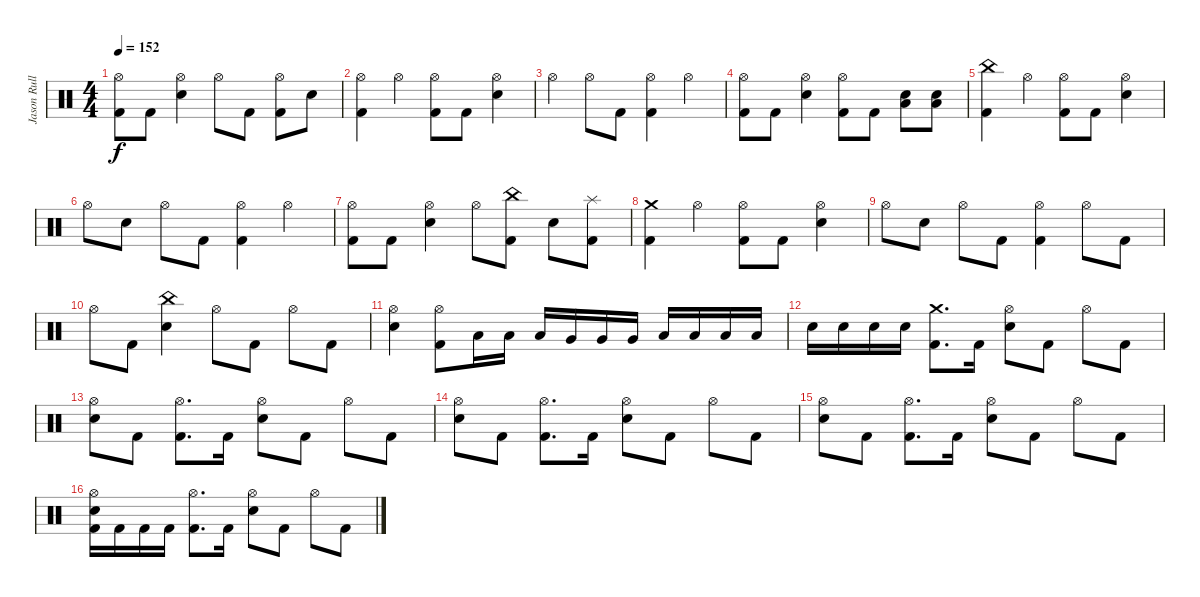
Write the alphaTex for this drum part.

\track ("Jason Rullo" "Jason Rull") {instrument percussion}
\staff {score}
\articulation defaults
\ts (4 4)
\tempo 152
\clef neutral
\ks c
("Hi-Hat (open)" "Kick (hit) 2").8{dy f} "Kick (hit) 2".8 ("Hi-Hat (open)" "Electric Snare (hit)").4 "Hi-Hat (open)".8 "Kick (hit) 2".8 ("Hi-Hat (open)" "Kick (hit) 2").8 "Electric Snare (hit)".8 |
("Hi-Hat (open)" "Kick (hit) 2").4 "Hi-Hat (open)".4 ("Hi-Hat (open)" "Kick (hit) 2").8 "Kick (hit) 2".8 ("Electric Snare (hit)" "Hi-Hat (open)").4 |
"Hi-Hat (open)".4 "Hi-Hat (open)".8 "Kick (hit) 2".8 ("Hi-Hat (open)" "Kick (hit) 2").4 "Hi-Hat (open)".4 |
("Hi-Hat (open)" "Kick (hit) 2").8 "Kick (hit) 2".8 ("Electric Snare (hit)" "Hi-Hat (open)").4 ("Kick (hit) 2" "Hi-Hat (open)").8 "Kick (hit) 2".8 ("Low Tom (hit)" "Electric Snare (hit)").8 ("Low Tom (hit)" "Electric Snare (hit)").8 |
("China (hit)" "Kick (hit) 2").4 "Hi-Hat (open)".4 ("Hi-Hat (open)" "Kick (hit) 2").8 "Kick (hit) 2".8 ("Electric Snare (hit)" "Hi-Hat (open)").4 |
"Hi-Hat (open)".8 "Electric Snare (hit)".8 "Hi-Hat (open)".8 "Kick (hit) 2".8 ("Hi-Hat (open)" "Kick (hit) 2").4 "Hi-Hat (open)".4 |
("Hi-Hat (open)" "Kick (hit) 2").8 "Kick (hit) 2".8 ("Hi-Hat (open)" "Electric Snare (hit)").4 "Hi-Hat (open)".8 ("China (hit)" "Kick (hit) 2").8 "Electric Snare (hit)".8 ("Splash (hit)" "Kick (hit) 2").8 |
("Crash medium (hit)" "Kick (hit) 2").4 "Hi-Hat (open)".4 ("Hi-Hat (open)" "Kick (hit) 2").8 "Kick (hit) 2".8 ("Electric Snare (hit)" "Hi-Hat (open)").4 |
"Hi-Hat (open)".8 "Electric Snare (hit)".8 "Hi-Hat (open)".8 "Kick (hit) 2".8 ("Hi-Hat (open)" "Kick (hit) 2").4 "Hi-Hat (open)".8 "Kick (hit) 2".8 |
"Hi-Hat (open)".8 "Kick (hit) 2".8 ("Electric Snare (hit)" "China (hit)").4 "Hi-Hat (open)".8 "Kick (hit) 2".8 "Hi-Hat (open)".8 "Kick (hit) 2".8 |
("Electric Snare (hit)" "Hi-Hat (open)").4 ("Hi-Hat (open)" "Kick (hit) 2").8 "Low Tom (hit)".16 "Low Tom (hit)".16 "Low Tom (hit)".16 "Very Low Tom (hit)".16 "Very Low Tom (hit)".16 "Very Low Tom (hit)".16 "Low Floor Tom (hit)".16 "Low Floor Tom (hit)".16 "Low Floor Tom (hit)".16 "Low Floor Tom (hit)".16 |
"Electric Snare (hit)".16 "Electric Snare (hit)".16 "Electric Snare (hit)".16 "Electric Snare (hit)".16 ("Crash medium (hit)" "Kick (hit) 2").8{d} "Kick (hit) 2".16 ("Hi-Hat (open)" "Electric Snare (hit)").8 "Kick (hit) 2".8 "Hi-Hat (open)".8 "Kick (hit) 2".8 |
("Hi-Hat (open)" "Electric Snare (hit)").8 "Kick (hit) 2".8 ("Hi-Hat (open)" "Kick (hit) 2").8{d} "Kick (hit) 2".16 ("Hi-Hat (open)" "Electric Snare (hit)").8 "Kick (hit) 2".8 "Hi-Hat (open)".8 "Kick (hit) 2".8 |
("Hi-Hat (open)" "Electric Snare (hit)").8 "Kick (hit) 2".8 ("Hi-Hat (open)" "Kick (hit) 2").8{d} "Kick (hit) 2".16 ("Hi-Hat (open)" "Electric Snare (hit)").8 "Kick (hit) 2".8 "Hi-Hat (open)".8 "Kick (hit) 2".8 |
("Hi-Hat (open)" "Electric Snare (hit)").8 "Kick (hit) 2".8 ("Hi-Hat (open)" "Kick (hit) 2").8{d} "Kick (hit) 2".16 ("Hi-Hat (open)" "Electric Snare (hit)").8 "Kick (hit) 2".8 "Hi-Hat (open)".8 "Kick (hit) 2".8 |
("Kick (hit) 2" "Hi-Hat (open)" "Electric Snare (hit)").16 "Kick (hit) 2".16 "Kick (hit) 2".16 "Kick (hit) 2".16 ("Hi-Hat (open)" "Kick (hit) 2").8{d} "Kick (hit) 2".16 ("Hi-Hat (open)" "Electric Snare (hit)").8 "Kick (hit) 2".8 "Hi-Hat (open)".8 "Kick (hit) 2".8
